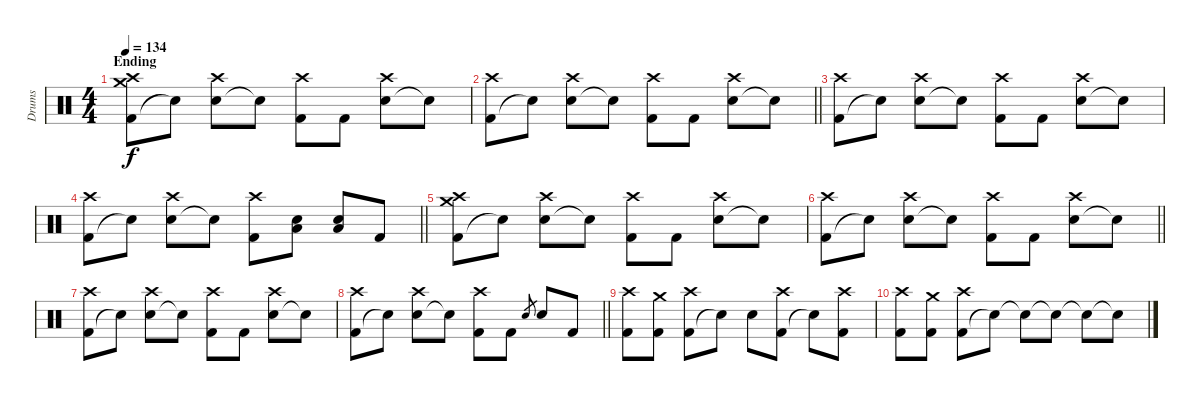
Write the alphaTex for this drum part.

\track ("Drums" "Drums") {instrument percussion}
\staff {score}
\articulation defaults
\ts (4 4)
\section ("" "Ending")
\tempo 134
\clef neutral
\ks c
("Kick (hit) 2" "Crash medium (hit)" "Crash high (hit)").8{dy f} "Snare (hit)"{t}.8 ("Electric Snare (hit)" "Crash high (hit)").8 "Snare (hit)"{t}.8 ("Kick (hit) 2" "Crash high (hit)").8 "Kick (hit) 2".8 ("Electric Snare (hit)" "Crash high (hit)").8 "Snare (hit)"{t}.8 |
\barLineRight lightlight
("Kick (hit) 2" "Crash high (hit)").8 "Snare (hit)"{t}.8 ("Electric Snare (hit)" "Crash high (hit)").8 "Snare (hit)"{t}.8 ("Kick (hit) 2" "Crash high (hit)").8 "Kick (hit) 2".8 ("Electric Snare (hit)" "Crash high (hit)").8 "Snare (hit)"{t}.8 |
("Kick (hit) 2" "Crash high (hit)").8 "Snare (hit)"{t}.8 ("Electric Snare (hit)" "Crash high (hit)").8 "Snare (hit)"{t}.8 ("Kick (hit) 2" "Crash high (hit)").8 "Kick (hit) 2".8 ("Electric Snare (hit)" "Crash high (hit)").8 "Snare (hit)"{t}.8 |
\barLineRight lightlight
("Kick (hit) 2" "Crash high (hit)").8 "Snare (hit)"{t}.8 ("Electric Snare (hit)" "Crash high (hit)").8 "Snare (hit)"{t}.8 ("Kick (hit) 2" "Crash high (hit)").8 ("Electric Snare (hit)" "Low Floor Tom (hit)").8 ("Electric Snare (hit)" "Low Floor Tom (hit)").8 "Kick (hit) 2".8 |
("Kick (hit) 2" "Crash medium (hit)" "Crash high (hit)").8 "Snare (hit)"{t}.8 ("Electric Snare (hit)" "Crash high (hit)").8 "Snare (hit)"{t}.8 ("Kick (hit) 2" "Crash high (hit)").8 "Kick (hit) 2".8 ("Electric Snare (hit)" "Crash high (hit)").8 "Snare (hit)"{t}.8 |
\barLineRight lightlight
("Kick (hit) 2" "Crash high (hit)").8 "Snare (hit)"{t}.8 ("Electric Snare (hit)" "Crash high (hit)").8 "Snare (hit)"{t}.8 ("Kick (hit) 2" "Crash high (hit)").8 "Kick (hit) 2".8 ("Electric Snare (hit)" "Crash high (hit)").8 "Snare (hit)"{t}.8 |
("Kick (hit) 2" "Crash high (hit)").8 "Snare (hit)"{t}.8 ("Electric Snare (hit)" "Crash high (hit)").8 "Snare (hit)"{t}.8 ("Kick (hit) 2" "Crash high (hit)").8 "Kick (hit) 2".8 ("Electric Snare (hit)" "Crash high (hit)").8 "Snare (hit)"{t}.8 |
\barLineRight lightlight
("Kick (hit) 2" "Crash high (hit)").8 "Snare (hit)"{t}.8 ("Electric Snare (hit)" "Crash high (hit)").8 "Snare (hit)"{t}.8 ("Kick (hit) 2" "Crash high (hit)").8 "Kick (hit) 2".8 "Electric Snare (hit)".8{gr} "Electric Snare (hit)".8 "Kick (hit) 2".8 |
("Kick (hit) 2" "Crash high (hit)").8 ("Kick (hit) 2" "Crash medium (hit)").8 ("Kick (hit) 2" "Crash high (hit)").8 "Snare (hit)"{t}.8 "Electric Snare (hit)".8 ("Kick (hit) 2" "Crash high (hit)").8 "Snare (hit)"{t}.8 ("Kick (hit) 2" "Crash high (hit)").8 |
("Kick (hit) 2" "Crash high (hit)").8 ("Kick (hit) 2" "Crash medium (hit)").8 ("Kick (hit) 2" "Crash high (hit)").8 "Snare (hit)"{t}.8 "Snare (hit)"{t}.8 "Snare (hit)"{t}.8 "Snare (hit)"{t}.8 "Snare (hit)"{t}.8
